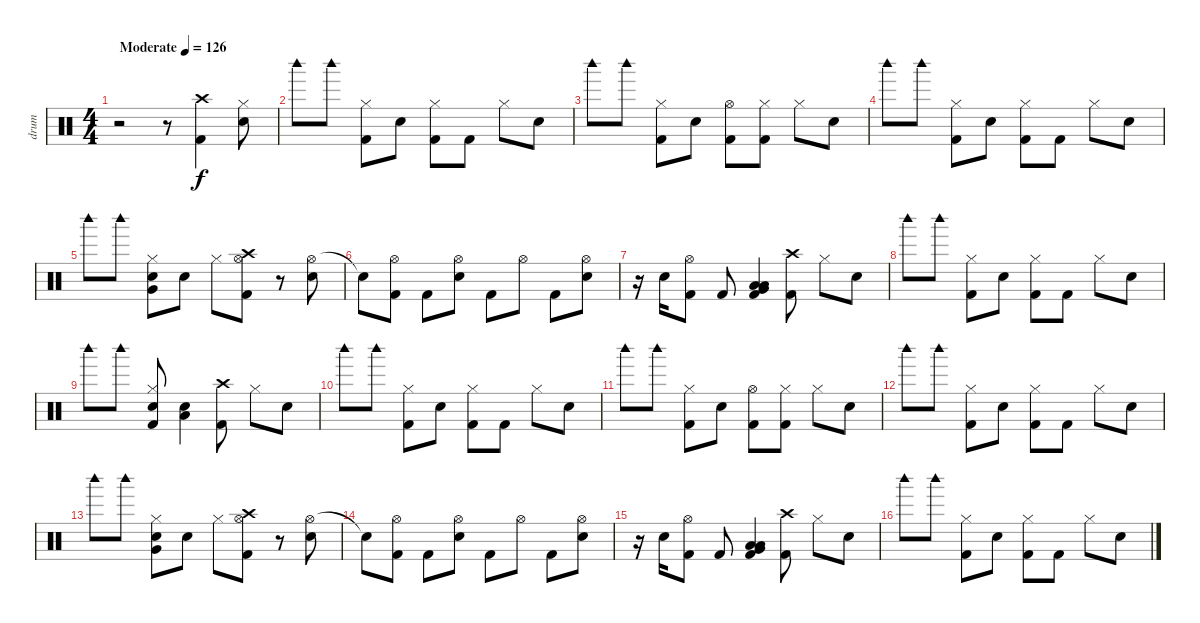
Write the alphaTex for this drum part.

\track ("drum" "drum") {instrument percussion}
\staff {score}
\articulation defaults
\ts (4 4)
\tempo (126 "Moderate")
\clef neutral
\ks c
r.2{dy f} r.8 ("Crash high (hit)" "Kick (hit) 2").4 ("Hi-Hat (closed)" "Snare (hit) 2").8 |
"Woodblock high (hit)".8 "Woodblock high (hit)".8 ("Hi-Hat (closed)" "Kick (hit) 2").8 "Snare (hit) 2".8 ("Hi-Hat (closed)" "Kick (hit) 2").8 "Kick (hit) 2".8 "Hi-Hat (closed)".8 "Snare (hit) 2".8 |
"Woodblock high (hit)".8 "Woodblock high (hit)".8 ("Hi-Hat (closed)" "Kick (hit) 2").8 "Snare (hit) 2".8 ("Hi-Hat (open)" "Kick (hit) 2").8 ("Hi-Hat (closed)" "Kick (hit) 2").8 "Hi-Hat (closed)".8 "Snare (hit) 2".8 |
"Woodblock high (hit)".8 "Woodblock high (hit)".8 ("Hi-Hat (closed)" "Kick (hit) 2").8 "Snare (hit) 2".8 ("Hi-Hat (closed)" "Kick (hit) 2").8 "Kick (hit) 2".8 "Hi-Hat (closed)".8 "Snare (hit) 2".8 |
"Woodblock high (hit)".8 "Woodblock high (hit)".8 ("Hi-Hat (closed)" "Snare (hit) 2" "Very Low Tom (hit)").8 "Snare (hit) 2".8 "Hi-Hat (closed)".8 ("Crash high (hit)" "Hi-Hat (open)" "Kick (hit) 2").8 r.8 ("Hi-Hat (open)" "Snare (hit) 2").8 |
"Snare (hit)"{t}.8 ("Hi-Hat (open)" "Kick (hit) 2").8 "Kick (hit) 2".8 ("Hi-Hat (open)" "Snare (hit) 2").8 "Kick (hit) 2".8 "Hi-Hat (open)".8 "Kick (hit) 2".8 ("Hi-Hat (open)" "Snare (hit) 2").8 |
r.16 "Snare (hit) 2".16 ("Hi-Hat (open)" "Kick (hit) 2").8 "Kick (hit) 2".8 ("Very Low Tom (hit)" "Low Tom (hit)" "Low Floor Tom (hit)" "Kick (hit) 2").4 ("Crash high (hit)" "Kick (hit) 2").8 "Hi-Hat (closed)".8 "Snare (hit) 2".8 |
"Woodblock high (hit)".8 "Woodblock high (hit)".8 ("Hi-Hat (closed)" "Kick (hit) 2").8 "Snare (hit) 2".8 ("Hi-Hat (closed)" "Kick (hit) 2").8 "Kick (hit) 2".8 "Hi-Hat (closed)".8 "Snare (hit) 2".8 |
"Woodblock high (hit)".8 "Woodblock high (hit)".8 ("Hi-Hat (closed)" "Snare (hit) 2" "Kick (hit) 2").8 ("Snare (hit) 2" "Low Floor Tom (hit)").4 ("Crash high (hit)" "Kick (hit) 2").8 "Hi-Hat (closed)".8 "Snare (hit) 2".8 |
"Woodblock high (hit)".8 "Woodblock high (hit)".8 ("Hi-Hat (closed)" "Kick (hit) 2").8 "Snare (hit) 2".8 ("Hi-Hat (closed)" "Kick (hit) 2").8 "Kick (hit) 2".8 "Hi-Hat (closed)".8 "Snare (hit) 2".8 |
"Woodblock high (hit)".8 "Woodblock high (hit)".8 ("Hi-Hat (closed)" "Kick (hit) 2").8 "Snare (hit) 2".8 ("Hi-Hat (open)" "Kick (hit) 2").8 ("Hi-Hat (closed)" "Kick (hit) 2").8 "Hi-Hat (closed)".8 "Snare (hit) 2".8 |
"Woodblock high (hit)".8 "Woodblock high (hit)".8 ("Hi-Hat (closed)" "Kick (hit) 2").8 "Snare (hit) 2".8 ("Hi-Hat (closed)" "Kick (hit) 2").8 "Kick (hit) 2".8 "Hi-Hat (closed)".8 "Snare (hit) 2".8 |
"Woodblock high (hit)".8 "Woodblock high (hit)".8 ("Hi-Hat (closed)" "Snare (hit) 2" "Very Low Tom (hit)").8 "Snare (hit) 2".8 "Hi-Hat (closed)".8 ("Crash high (hit)" "Hi-Hat (open)" "Kick (hit) 2").8 r.8 ("Hi-Hat (open)" "Snare (hit) 2").8 |
"Snare (hit)"{t}.8 ("Hi-Hat (open)" "Kick (hit) 2").8 "Kick (hit) 2".8 ("Hi-Hat (open)" "Snare (hit) 2").8 "Kick (hit) 2".8 "Hi-Hat (open)".8 "Kick (hit) 2".8 ("Hi-Hat (open)" "Snare (hit) 2").8 |
r.16 "Snare (hit) 2".16 ("Hi-Hat (open)" "Kick (hit) 2").8 "Kick (hit) 2".8 ("Very Low Tom (hit)" "Low Tom (hit)" "Low Floor Tom (hit)" "Kick (hit) 2").4 ("Crash high (hit)" "Kick (hit) 2").8 "Hi-Hat (closed)".8 "Snare (hit) 2".8 |
"Woodblock high (hit)".8 "Woodblock high (hit)".8 ("Hi-Hat (closed)" "Kick (hit) 2").8 "Snare (hit) 2".8 ("Hi-Hat (closed)" "Kick (hit) 2").8 "Kick (hit) 2".8 "Hi-Hat (closed)".8 "Snare (hit) 2".8
